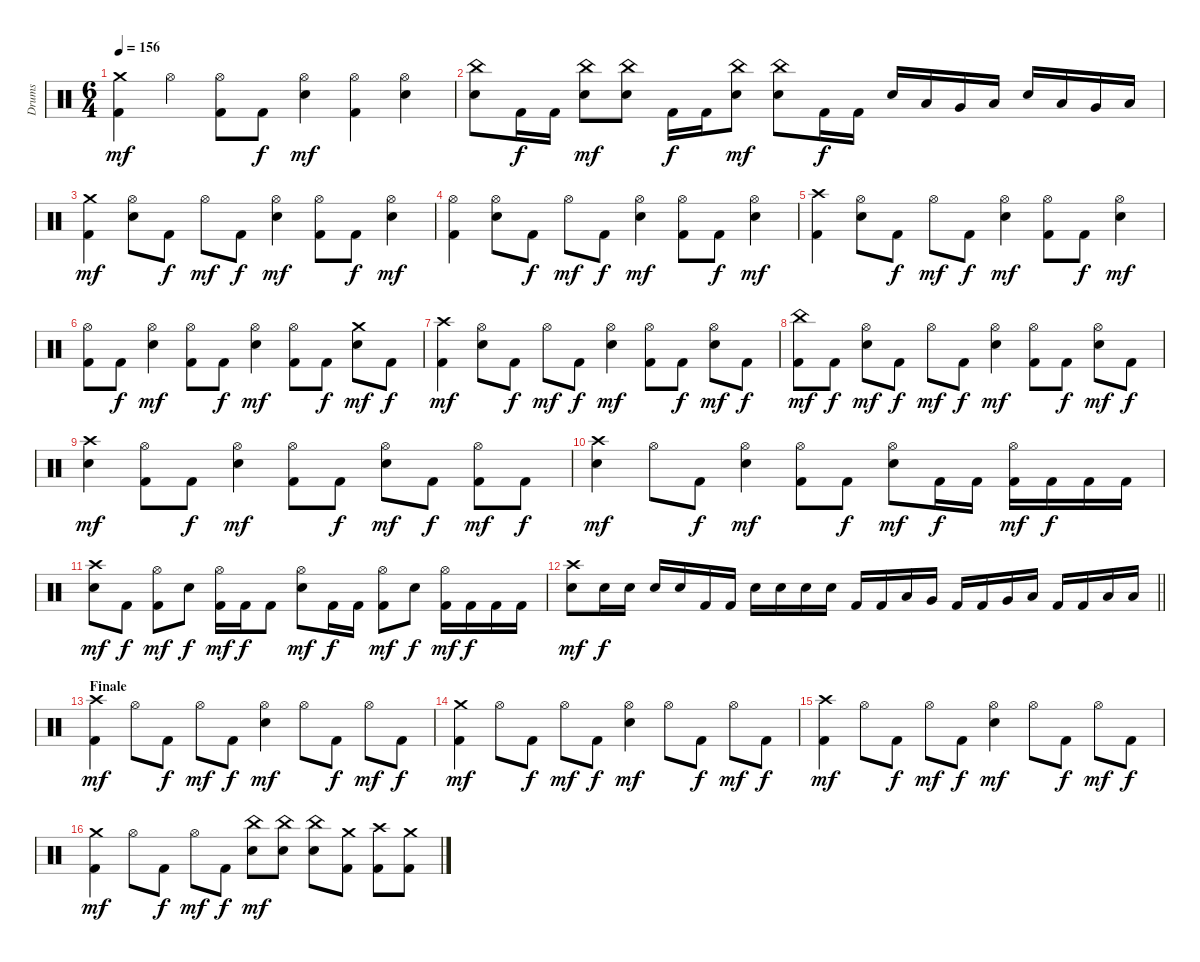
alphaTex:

\track ("Drums" "Drums") {instrument percussion}
\staff {score}
\articulation defaults
\ts (6 4)
\tempo 156
\clef neutral
\ks c
("Crash medium (hit)" "Kick (hit) 2").4{dy mf} "Hi-Hat (open)".4 ("Hi-Hat (open)" "Kick (hit) 2").8 "Kick (hit) 2".8{dy f} ("Hi-Hat (open)" "Electric Snare (hit)").4{dy mf} ("Hi-Hat (open)" "Kick (hit) 2").4 ("Hi-Hat (open)" "Electric Snare (hit)").4 |
("China (hit)" "Electric Snare (hit)").8 "Kick (hit) 2".16{dy f} "Kick (hit) 2".16 ("China (hit)" "Electric Snare (hit)").8{dy mf} ("China (hit)" "Electric Snare (hit)").8 "Kick (hit) 2".16{dy f} "Kick (hit) 2".16 ("China (hit)" "Electric Snare (hit)").8{dy mf} ("China (hit)" "Electric Snare (hit)").8 "Kick (hit) 2".16{dy f} "Kick (hit) 2".16 "Electric Snare (hit)".16 "Low Tom (hit)".16 "Very Low Tom (hit)".16 "Low Floor Tom (hit)".16 "Electric Snare (hit)".16 "Low Tom (hit)".16 "Very Low Tom (hit)".16 "Low Floor Tom (hit)".16 |
("Crash medium (hit)" "Kick (hit) 2").4{dy mf} ("Hi-Hat (open)" "Electric Snare (hit)").8 "Kick (hit) 2".8{dy f} "Hi-Hat (open)".8{dy mf} "Kick (hit) 2".8{dy f} ("Hi-Hat (open)" "Electric Snare (hit)").4{dy mf} ("Hi-Hat (open)" "Kick (hit) 2").8 "Kick (hit) 2".8{dy f} ("Hi-Hat (open)" "Electric Snare (hit)").4{dy mf} |
("Hi-Hat (open)" "Kick (hit) 2").4 ("Hi-Hat (open)" "Electric Snare (hit)").8 "Kick (hit) 2".8{dy f} "Hi-Hat (open)".8{dy mf} "Kick (hit) 2".8{dy f} ("Hi-Hat (open)" "Electric Snare (hit)").4{dy mf} ("Hi-Hat (open)" "Kick (hit) 2").8 "Kick (hit) 2".8{dy f} ("Hi-Hat (open)" "Electric Snare (hit)").4{dy mf} |
("Crash high (hit)" "Kick (hit) 2").4 ("Hi-Hat (open)" "Electric Snare (hit)").8 "Kick (hit) 2".8{dy f} "Hi-Hat (open)".8{dy mf} "Kick (hit) 2".8{dy f} ("Hi-Hat (open)" "Electric Snare (hit)").4{dy mf} ("Hi-Hat (open)" "Kick (hit) 2").8 "Kick (hit) 2".8{dy f} ("Hi-Hat (open)" "Electric Snare (hit)").4{dy mf} |
("Hi-Hat (open)" "Kick (hit) 2").8 "Kick (hit) 2".8{dy f} ("Hi-Hat (open)" "Electric Snare (hit)").4{dy mf} ("Hi-Hat (open)" "Kick (hit) 2").8 "Kick (hit) 2".8{dy f} ("Hi-Hat (open)" "Electric Snare (hit)").4{dy mf} ("Hi-Hat (open)" "Kick (hit) 2").8 "Kick (hit) 2".8{dy f} ("Crash medium (hit)" "Electric Snare (hit)").8{dy mf} "Kick (hit) 2".8{dy f} |
("Crash high (hit)" "Kick (hit) 2").4{dy mf} ("Hi-Hat (open)" "Electric Snare (hit)").8 "Kick (hit) 2".8{dy f} "Hi-Hat (open)".8{dy mf} "Kick (hit) 2".8{dy f} ("Hi-Hat (open)" "Electric Snare (hit)").4{dy mf} ("Hi-Hat (open)" "Kick (hit) 2").8 "Kick (hit) 2".8{dy f} ("Hi-Hat (open)" "Electric Snare (hit)").8{dy mf} "Kick (hit) 2".8{dy f} |
("China (hit)" "Kick (hit) 2").8{dy mf} "Kick (hit) 2".8{dy f} ("Hi-Hat (open)" "Electric Snare (hit)").8{dy mf} "Kick (hit) 2".8{dy f} "Hi-Hat (open)".8{dy mf} "Kick (hit) 2".8{dy f} ("Hi-Hat (open)" "Electric Snare (hit)").4{dy mf} ("Hi-Hat (open)" "Kick (hit) 2").8 "Kick (hit) 2".8{dy f} ("Hi-Hat (open)" "Electric Snare (hit)").8{dy mf} "Kick (hit) 2".8{dy f} |
("Crash high (hit)" "Electric Snare (hit)").4{dy mf} ("Hi-Hat (open)" "Kick (hit) 2").8 "Kick (hit) 2".8{dy f} ("Hi-Hat (open)" "Electric Snare (hit)").4{dy mf} ("Hi-Hat (open)" "Kick (hit) 2").8 "Kick (hit) 2".8{dy f} ("Hi-Hat (open)" "Electric Snare (hit)").8{dy mf} "Kick (hit) 2".8{dy f} ("Hi-Hat (open)" "Kick (hit) 2").8{dy mf} "Kick (hit) 2".8{dy f} |
("Crash high (hit)" "Electric Snare (hit)").4{dy mf} "Hi-Hat (open)".8 "Kick (hit) 2".8{dy f} ("Hi-Hat (open)" "Electric Snare (hit)").4{dy mf} ("Hi-Hat (open)" "Kick (hit) 2").8 "Kick (hit) 2".8{dy f} ("Hi-Hat (open)" "Electric Snare (hit)").8{dy mf} "Kick (hit) 2".16{dy f} "Kick (hit) 2".16 ("Hi-Hat (open)" "Kick (hit) 2").16{dy mf} "Kick (hit) 2".16{dy f} "Kick (hit) 2".16 "Kick (hit) 2".16 |
("Crash high (hit)" "Electric Snare (hit)").8{dy mf} "Kick (hit) 2".8{dy f} ("Hi-Hat (open)" "Kick (hit) 2").8{dy mf} "Electric Snare (hit)".8{dy f} ("Hi-Hat (open)" "Kick (hit) 2").16{dy mf} "Kick (hit) 2".16{dy f} "Kick (hit) 2".8 ("Hi-Hat (open)" "Electric Snare (hit)").8{dy mf} "Kick (hit) 2".16{dy f} "Kick (hit) 2".16 ("Hi-Hat (open)" "Kick (hit) 2").8{dy mf} "Electric Snare (hit)".8{dy f} ("Hi-Hat (open)" "Kick (hit) 2").16{dy mf} "Kick (hit) 2".16{dy f} "Kick (hit) 2".16 "Kick (hit) 2".16 |
\barLineRight lightlight
("Crash high (hit)" "Electric Snare (hit)").8{dy mf} "Electric Snare (hit)".16{dy f} "Electric Snare (hit)".16 "Electric Snare (hit)".16 "Electric Snare (hit)".16 "Kick (hit) 2".16 "Kick (hit) 2".16 "Electric Snare (hit)".16 "Electric Snare (hit)".16 "Electric Snare (hit)".16 "Electric Snare (hit)".16 "Kick (hit) 2".16 "Kick (hit) 2".16 "Low Tom (hit)".16 "Very Low Tom (hit)".16 "Kick (hit) 2".16 "Kick (hit) 2".16 "Very Low Tom (hit)".16 "Low Floor Tom (hit)".16 "Kick (hit) 2".16 "Kick (hit) 2".16 "Low Floor Tom (hit)".16 "Low Floor Tom (hit)".16 |
\section ("" "Finale")
("Crash high (hit)" "Kick (hit) 2").4{dy mf} "Hi-Hat (open)".8 "Kick (hit) 2".8{dy f} "Hi-Hat (open)".8{dy mf} "Kick (hit) 2".8{dy f} ("Hi-Hat (open)" "Electric Snare (hit)").4{dy mf} "Hi-Hat (open)".8 "Kick (hit) 2".8{dy f} "Hi-Hat (open)".8{dy mf} "Kick (hit) 2".8{dy f} |
("Crash medium (hit)" "Kick (hit) 2").4{dy mf} "Hi-Hat (open)".8 "Kick (hit) 2".8{dy f} "Hi-Hat (open)".8{dy mf} "Kick (hit) 2".8{dy f} ("Hi-Hat (open)" "Electric Snare (hit)").4{dy mf} "Hi-Hat (open)".8 "Kick (hit) 2".8{dy f} "Hi-Hat (open)".8{dy mf} "Kick (hit) 2".8{dy f} |
("Crash high (hit)" "Kick (hit) 2").4{dy mf} "Hi-Hat (open)".8 "Kick (hit) 2".8{dy f} "Hi-Hat (open)".8{dy mf} "Kick (hit) 2".8{dy f} ("Hi-Hat (open)" "Electric Snare (hit)").4{dy mf} "Hi-Hat (open)".8 "Kick (hit) 2".8{dy f} "Hi-Hat (open)".8{dy mf} "Kick (hit) 2".8{dy f} |
("Crash medium (hit)" "Kick (hit) 2").4{dy mf} "Hi-Hat (open)".8 "Kick (hit) 2".8{dy f} "Hi-Hat (open)".8{dy mf} "Kick (hit) 2".8{dy f} ("China (hit)" "Electric Snare (hit)").8{dy mf} ("China (hit)" "Electric Snare (hit)").8 ("China (hit)" "Electric Snare (hit)").8 ("Crash medium (hit)" "Kick (hit) 2").8 ("Crash high (hit)" "Kick (hit) 2").8 ("Crash medium (hit)" "Kick (hit) 2").8
